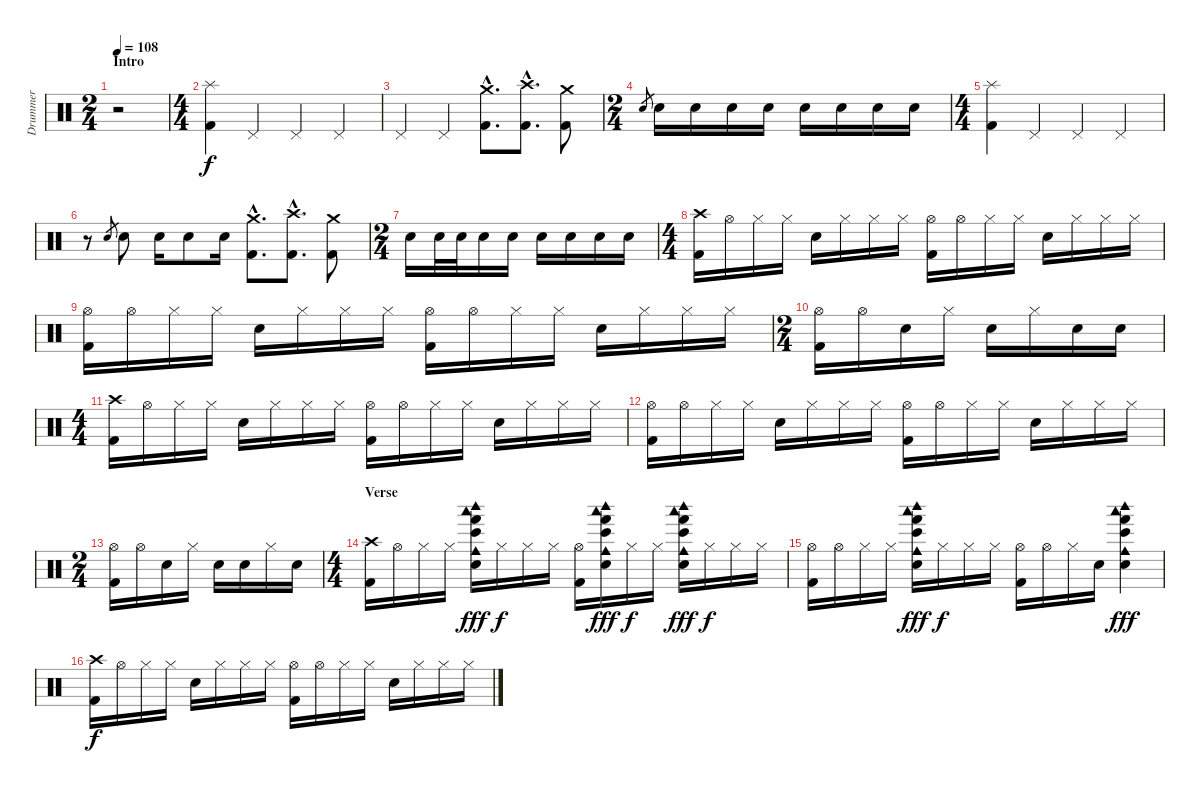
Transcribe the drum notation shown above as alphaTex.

\track ("Drummer" "Drummer") {instrument percussion}
\staff {score}
\articulation defaults
\ts (2 4)
\section ("" "Intro")
\tempo 108
\clef neutral
\ks c
r.2{dy f} |
\ts (4 4)
("Splash (hit)" "Kick (hit) 2").4 "Pedal Hi-Hat (hit)".4 "Pedal Hi-Hat (hit)".4 "Pedal Hi-Hat (hit)".4 |
"Pedal Hi-Hat (hit)".4 "Pedal Hi-Hat (hit)".4 ("Crash medium (hit)"{hac} "Kick (hit) 2"{hac}).8{d} ("Crash high (hit)"{hac} "Kick (hit) 2"{hac}).8{d} ("Crash medium (hit)" "Kick (hit) 2").8 |
\ts (2 4)
"Electric Snare (hit)".8{gr} "Electric Snare (hit)".16 "Electric Snare (hit)".16 "Electric Snare (hit)".16 "Electric Snare (hit)".16 "Electric Snare (hit)".16 "Electric Snare (hit)".16 "Electric Snare (hit)".16 "Electric Snare (hit)".16 |
\ts (4 4)
("Splash (hit)" "Kick (hit) 2").4 "Pedal Hi-Hat (hit)".4 "Pedal Hi-Hat (hit)".4 "Pedal Hi-Hat (hit)".4 |
r.8 "Electric Snare (hit)".8{gr} "Electric Snare (hit)".8 "Electric Snare (hit)".16 "Electric Snare (hit)".8 "Electric Snare (hit)".16 ("Crash medium (hit)"{hac} "Kick (hit) 2"{hac}).8{d} ("Crash high (hit)"{hac} "Kick (hit) 2"{hac}).8{d} ("Crash medium (hit)" "Kick (hit) 2").8 |
\ts (2 4)
"Electric Snare (hit)".16 "Electric Snare (hit)".32 "Electric Snare (hit)".32 "Electric Snare (hit)".16 "Electric Snare (hit)".16 "Electric Snare (hit)".16 "Electric Snare (hit)".16 "Electric Snare (hit)".16 "Electric Snare (hit)".16 |
\ts (4 4)
("Crash high (hit)" "Kick (hit) 2").16 "Hi-Hat (open)".16 "Hi-Hat (closed)".16 "Hi-Hat (closed)".16 "Electric Snare (hit)".16 "Hi-Hat (closed)".16 "Hi-Hat (closed)".16 "Hi-Hat (closed)".16 ("Hi-Hat (open)" "Kick (hit) 2").16 "Hi-Hat (open)".16 "Hi-Hat (closed)".16 "Hi-Hat (closed)".16 "Electric Snare (hit)".16 "Hi-Hat (closed)".16 "Hi-Hat (closed)".16 "Hi-Hat (closed)".16 |
("Hi-Hat (open)" "Kick (hit) 2").16 "Hi-Hat (open)".16 "Hi-Hat (closed)".16 "Hi-Hat (closed)".16 "Electric Snare (hit)".16 "Hi-Hat (closed)".16 "Hi-Hat (closed)".16 "Hi-Hat (closed)".16 ("Hi-Hat (open)" "Kick (hit) 2").16 "Hi-Hat (open)".16 "Hi-Hat (closed)".16 "Hi-Hat (closed)".16 "Electric Snare (hit)".16 "Hi-Hat (closed)".16 "Hi-Hat (closed)".16 "Hi-Hat (closed)".16 |
\ts (2 4)
("Hi-Hat (open)" "Kick (hit) 2").16 "Hi-Hat (open)".16 "Electric Snare (hit)".16 "Hi-Hat (closed)".16 "Electric Snare (hit)".16 "Hi-Hat (closed)".16 "Electric Snare (hit)".16 "Electric Snare (hit)".16 |
\ts (4 4)
("Crash high (hit)" "Kick (hit) 2").16 "Hi-Hat (open)".16 "Hi-Hat (closed)".16 "Hi-Hat (closed)".16 "Electric Snare (hit)".16 "Hi-Hat (closed)".16 "Hi-Hat (closed)".16 "Hi-Hat (closed)".16 ("Hi-Hat (open)" "Kick (hit) 2").16 "Hi-Hat (open)".16 "Hi-Hat (closed)".16 "Hi-Hat (closed)".16 "Electric Snare (hit)".16 "Hi-Hat (closed)".16 "Hi-Hat (closed)".16 "Hi-Hat (closed)".16 |
("Hi-Hat (open)" "Kick (hit) 2").16 "Hi-Hat (open)".16 "Hi-Hat (closed)".16 "Hi-Hat (closed)".16 "Electric Snare (hit)".16 "Hi-Hat (closed)".16 "Hi-Hat (closed)".16 "Hi-Hat (closed)".16 ("Hi-Hat (open)" "Kick (hit) 2").16 "Hi-Hat (open)".16 "Hi-Hat (closed)".16 "Hi-Hat (closed)".16 "Electric Snare (hit)".16 "Hi-Hat (closed)".16 "Hi-Hat (closed)".16 "Hi-Hat (closed)".16 |
\ts (2 4)
("Hi-Hat (open)" "Kick (hit) 2").16 "Hi-Hat (open)".16 "Electric Snare (hit)".16 "Hi-Hat (closed)".16 "Electric Snare (hit)".16 "Electric Snare (hit)".16 "Hi-Hat (closed)".16 "Electric Snare (hit)".16 |
\ts (4 4)
\section ("" "Verse")
("Crash high (hit)" "Kick (hit) 2").16 "Hi-Hat (open)".16 "Hi-Hat (closed)".16 "Hi-Hat (closed)".16 ("Woodblock low (hit)" "Woodblock high (hit)" "Cowbell medium (hit)" "Electric Snare (hit)" "Hand (hit)" "Bongo High (hit)").16{dy fff} "Hi-Hat (closed)".16{dy f} "Hi-Hat (closed)".16 "Hi-Hat (closed)".16 ("Hi-Hat (open)" "Kick (hit) 2").16 ("Woodblock low (hit)" "Woodblock high (hit)" "Cowbell medium (hit)" "Electric Snare (hit)" "Hand (hit)" "Bongo High (hit)").16{dy fff} "Hi-Hat (closed)".16{dy f} "Hi-Hat (closed)".16 ("Woodblock low (hit)" "Woodblock high (hit)" "Cowbell medium (hit)" "Electric Snare (hit)" "Hand (hit)" "Bongo High (hit)").16{dy fff} "Hi-Hat (closed)".16{dy f} "Hi-Hat (closed)".16 "Hi-Hat (closed)".16 |
("Hi-Hat (open)" "Kick (hit) 2").16 "Hi-Hat (open)".16 "Hi-Hat (closed)".16 "Hi-Hat (closed)".16 ("Woodblock low (hit)" "Woodblock high (hit)" "Cowbell medium (hit)" "Electric Snare (hit)" "Hand (hit)" "Bongo High (hit)").16{dy fff} "Hi-Hat (closed)".16{dy f} "Hi-Hat (closed)".16 "Hi-Hat (closed)".16 ("Hi-Hat (open)" "Kick (hit) 2").16 "Hi-Hat (open)".16 "Hi-Hat (closed)".16 "Electric Snare (hit)".16 ("Woodblock low (hit)" "Woodblock high (hit)" "Cowbell medium (hit)" "Electric Snare (hit)" "Hand (hit)" "Bongo High (hit)").4{dy fff} |
("Crash high (hit)" "Kick (hit) 2").16{dy f} "Hi-Hat (open)".16 "Hi-Hat (closed)".16 "Hi-Hat (closed)".16 "Electric Snare (hit)".16 "Hi-Hat (closed)".16 "Hi-Hat (closed)".16 "Hi-Hat (closed)".16 ("Hi-Hat (open)" "Kick (hit) 2").16 "Hi-Hat (open)".16 "Hi-Hat (closed)".16 "Hi-Hat (closed)".16 "Electric Snare (hit)".16 "Hi-Hat (closed)".16 "Hi-Hat (closed)".16 "Hi-Hat (closed)".16
